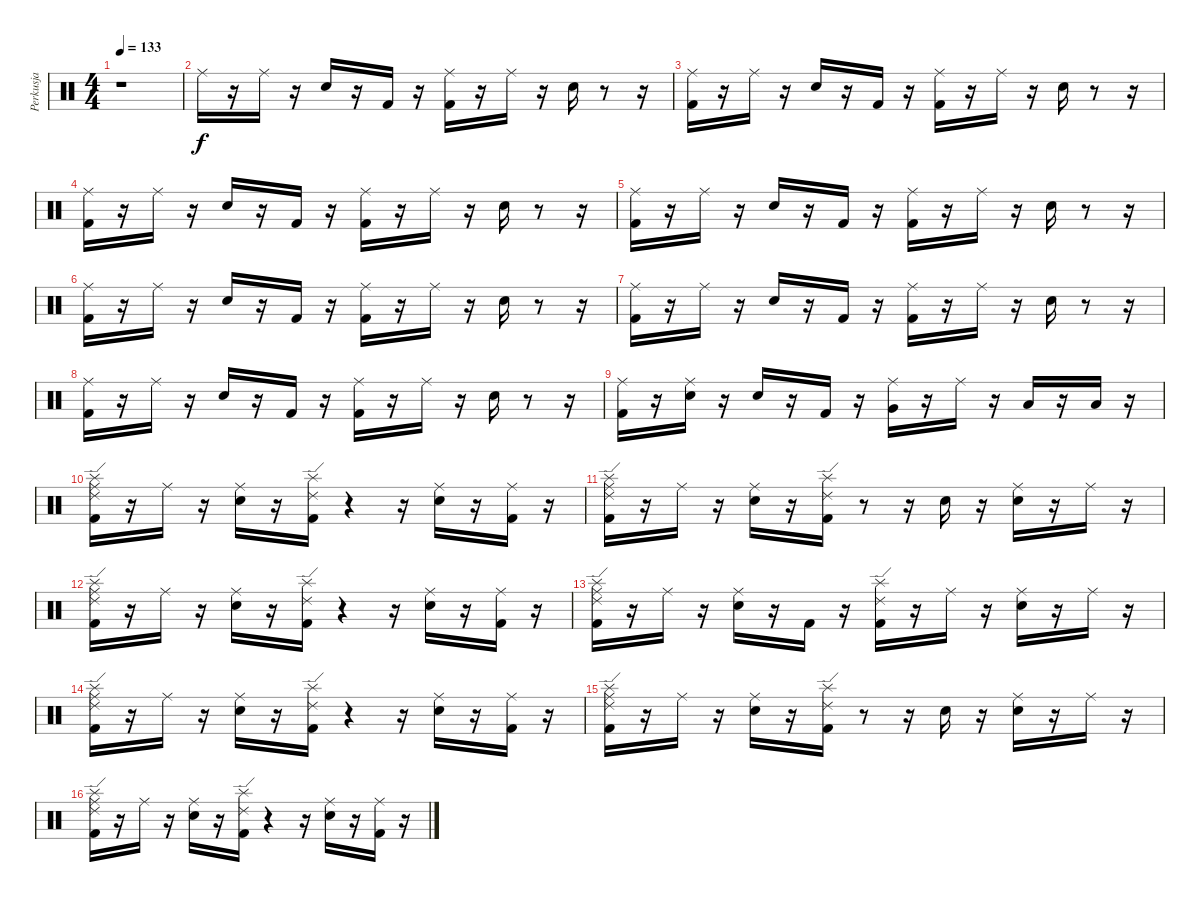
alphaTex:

\track ("Perkusja" "Perkusja") {instrument percussion}
\staff {score}
\articulation defaults
\ts (4 4)
\tempo 133
\clef neutral
\ks c
r.1{dy f} |
"Ride (middle)".16 r.16 "Ride (middle)".16 r.16 "Snare (hit) 2".16 r.16 "Kick (hit) 2".16 r.16 ("Ride (middle)" "Kick (hit) 2").16 r.16 "Ride (middle)".16 r.16 "Snare (hit) 2".16 r.8 r.16 |
("Ride (middle)" "Kick (hit) 2").16 r.16 "Ride (middle)".16 r.16 "Snare (hit) 2".16 r.16 "Kick (hit) 2".16 r.16 ("Ride (middle)" "Kick (hit) 2").16 r.16 "Ride (middle)".16 r.16 "Snare (hit) 2".16 r.8 r.16 |
("Kick (hit) 2" "Ride (middle)").16 r.16 "Ride (middle)".16 r.16 "Snare (hit) 2".16 r.16 "Kick (hit) 2".16 r.16 ("Ride (middle)" "Kick (hit) 2").16 r.16 "Ride (middle)".16 r.16 "Snare (hit) 2".16 r.8 r.16 |
("Ride (middle)" "Kick (hit) 2").16 r.16 "Ride (middle)".16 r.16 "Snare (hit) 2".16 r.16 "Kick (hit) 2".16 r.16 ("Ride (middle)" "Kick (hit) 2").16 r.16 "Ride (middle)".16 r.16 "Snare (hit) 2".16 r.8 r.16 |
("Kick (hit) 2" "Ride (middle)").16 r.16 "Ride (middle)".16 r.16 "Snare (hit) 2".16 r.16 "Kick (hit) 2".16 r.16 ("Ride (middle)" "Kick (hit) 2").16 r.16 "Ride (middle)".16 r.16 "Snare (hit) 2".16 r.8 r.16 |
("Ride (middle)" "Kick (hit) 2").16 r.16 "Ride (middle)".16 r.16 "Snare (hit) 2".16 r.16 "Kick (hit) 2".16 r.16 ("Ride (middle)" "Kick (hit) 2").16 r.16 "Ride (middle)".16 r.16 "Snare (hit) 2".16 r.8 r.16 |
("Kick (hit) 2" "Ride (middle)").16 r.16 "Ride (middle)".16 r.16 "Snare (hit) 2".16 r.16 "Kick (hit) 2".16 r.16 ("Ride (middle)" "Kick (hit) 2").16 r.16 "Ride (middle)".16 r.16 "Snare (hit) 2".16 r.8 r.16 |
("Ride (middle)" "Kick (hit) 2").16 r.16 ("Snare (hit) 2" "Ride (middle)").16 r.16 "Snare (hit) 2".16 r.16 "Kick (hit) 2".16 r.16 ("Very Low Tom (hit)" "Ride (middle)").16 r.16 "Ride (middle)".16 r.16 "Low Floor Tom (hit)".16 r.16 "Low Floor Tom (hit)".16 r.16 |
("Ride (middle)" "Ride (edge) 2" "Splash (hit)" "Kick (hit) 2").16 r.16 "Ride (middle)".16 r.16 ("Ride (middle)" "Snare (hit) 2").16 r.16 ("Splash (hit)" "Ride (edge) 2" "Kick (hit) 2").16 r.4 r.16 ("Ride (middle)" "Snare (hit) 2").16 r.16 ("Ride (middle)" "Kick (hit) 2").16 r.16 |
("Ride (middle)" "Ride (edge) 2" "Splash (hit)" "Kick (hit) 2").16 r.16 "Ride (middle)".16 r.16 ("Ride (middle)" "Snare (hit) 2").16 r.16 ("Splash (hit)" "Ride (edge) 2" "Kick (hit) 2").16 r.8 r.16 "Snare (hit) 2".16 r.16 ("Ride (middle)" "Snare (hit) 2").16 r.16 "Ride (middle)".16 r.16 |
("Ride (middle)" "Ride (edge) 2" "Splash (hit)" "Kick (hit) 2").16 r.16 "Ride (middle)".16 r.16 ("Ride (middle)" "Snare (hit) 2").16 r.16 ("Splash (hit)" "Ride (edge) 2" "Kick (hit) 2").16 r.4 r.16 ("Ride (middle)" "Snare (hit) 2").16 r.16 ("Ride (middle)" "Kick (hit) 2").16 r.16 |
("Ride (middle)" "Ride (edge) 2" "Splash (hit)" "Kick (hit) 2").16 r.16 "Ride (middle)".16 r.16 ("Ride (middle)" "Snare (hit) 2").16 r.16 "Kick (hit) 2".16 r.16 ("Ride (edge) 2" "Splash (hit)" "Kick (hit) 2").16 r.16 "Ride (middle)".16 r.16 ("Ride (middle)" "Snare (hit) 2").16 r.16 "Ride (middle)".16 r.16 |
("Ride (middle)" "Ride (edge) 2" "Splash (hit)" "Kick (hit) 2").16 r.16 "Ride (middle)".16 r.16 ("Ride (middle)" "Snare (hit) 2").16 r.16 ("Splash (hit)" "Ride (edge) 2" "Kick (hit) 2").16 r.4 r.16 ("Ride (middle)" "Snare (hit) 2").16 r.16 ("Ride (middle)" "Kick (hit) 2").16 r.16 |
("Ride (middle)" "Ride (edge) 2" "Splash (hit)" "Kick (hit) 2").16 r.16 "Ride (middle)".16 r.16 ("Ride (middle)" "Snare (hit) 2").16 r.16 ("Splash (hit)" "Ride (edge) 2" "Kick (hit) 2").16 r.8 r.16 "Snare (hit) 2".16 r.16 ("Ride (middle)" "Snare (hit) 2").16 r.16 "Ride (middle)".16 r.16 |
("Ride (middle)" "Ride (edge) 2" "Splash (hit)" "Kick (hit) 2").16 r.16 "Ride (middle)".16 r.16 ("Ride (middle)" "Snare (hit) 2").16 r.16 ("Splash (hit)" "Ride (edge) 2" "Kick (hit) 2").16 r.4 r.16 ("Ride (middle)" "Snare (hit) 2").16 r.16 ("Ride (middle)" "Kick (hit) 2").16 r.16
